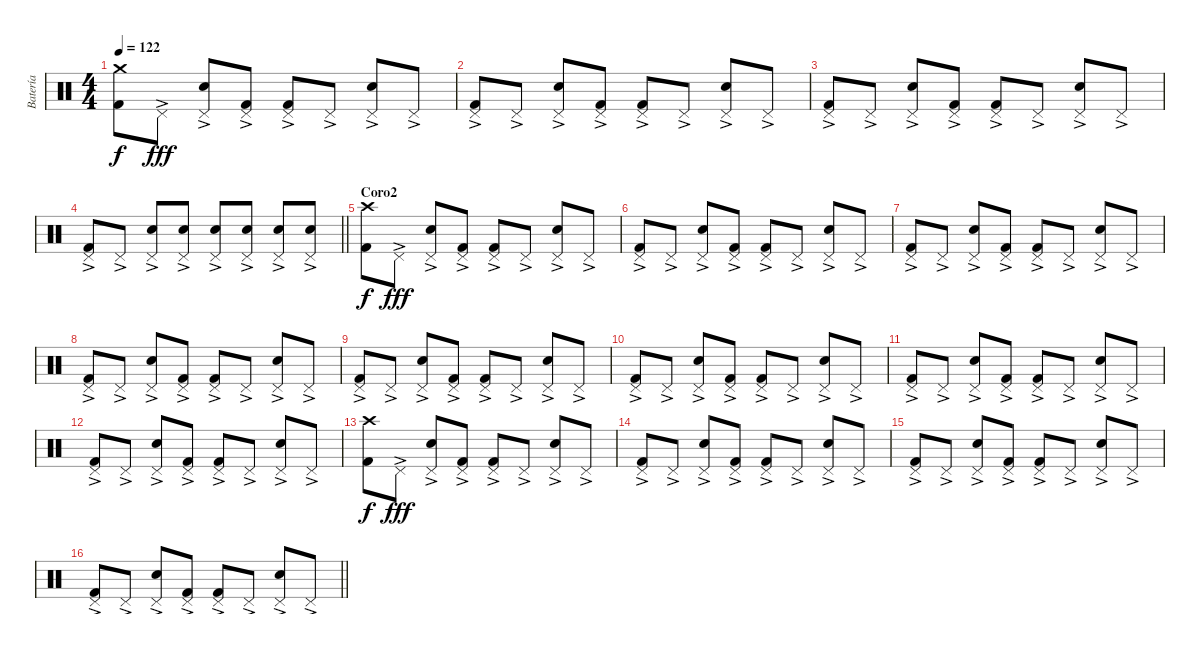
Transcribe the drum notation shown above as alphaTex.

\track ("Batería" "Batería") {instrument percussion}
\staff {score}
\articulation defaults
\ts (4 4)
\tempo 122
\clef neutral
\ks c
("Crash medium (hit)" "Kick (hit) 2").8{dy f} "Pedal Hi-Hat (hit)"{ac}.8{dy fff} ("Pedal Hi-Hat (hit)"{ac} "Electric Snare (hit)").8 ("Pedal Hi-Hat (hit)"{ac} "Kick (hit) 2").8 ("Pedal Hi-Hat (hit)"{ac} "Kick (hit) 2").8 "Pedal Hi-Hat (hit)"{ac}.8 ("Pedal Hi-Hat (hit)"{ac} "Electric Snare (hit)").8 "Pedal Hi-Hat (hit)"{ac}.8 |
("Pedal Hi-Hat (hit)"{ac} "Kick (hit) 2").8 "Pedal Hi-Hat (hit)"{ac}.8 ("Pedal Hi-Hat (hit)"{ac} "Electric Snare (hit)").8 ("Pedal Hi-Hat (hit)"{ac} "Kick (hit) 2").8 ("Pedal Hi-Hat (hit)"{ac} "Kick (hit) 2").8 "Pedal Hi-Hat (hit)"{ac}.8 ("Pedal Hi-Hat (hit)"{ac} "Electric Snare (hit)").8 "Pedal Hi-Hat (hit)"{ac}.8 |
("Pedal Hi-Hat (hit)"{ac} "Kick (hit) 2").8 "Pedal Hi-Hat (hit)"{ac}.8 ("Pedal Hi-Hat (hit)"{ac} "Electric Snare (hit)").8 ("Pedal Hi-Hat (hit)"{ac} "Kick (hit) 2").8 ("Pedal Hi-Hat (hit)"{ac} "Kick (hit) 2").8 "Pedal Hi-Hat (hit)"{ac}.8 ("Pedal Hi-Hat (hit)"{ac} "Electric Snare (hit)").8 "Pedal Hi-Hat (hit)"{ac}.8 |
\barLineRight lightlight
("Pedal Hi-Hat (hit)"{ac} "Kick (hit) 2").8 "Pedal Hi-Hat (hit)"{ac}.8 ("Pedal Hi-Hat (hit)"{ac} "Electric Snare (hit)").8 ("Pedal Hi-Hat (hit)"{ac} "Electric Snare (hit)").8 ("Pedal Hi-Hat (hit)"{ac} "Electric Snare (hit)").8 ("Pedal Hi-Hat (hit)"{ac} "Electric Snare (hit)").8 ("Pedal Hi-Hat (hit)"{ac} "Electric Snare (hit)").8 ("Pedal Hi-Hat (hit)"{ac} "Electric Snare (hit)").8 |
\section ("" "Coro2")
("Crash high (hit)" "Kick (hit) 2").8{dy f} "Pedal Hi-Hat (hit)"{ac}.8{dy fff} ("Pedal Hi-Hat (hit)"{ac} "Electric Snare (hit)").8 ("Pedal Hi-Hat (hit)"{ac} "Kick (hit) 2").8 ("Pedal Hi-Hat (hit)"{ac} "Kick (hit) 2").8 "Pedal Hi-Hat (hit)"{ac}.8 ("Pedal Hi-Hat (hit)"{ac} "Electric Snare (hit)").8 "Pedal Hi-Hat (hit)"{ac}.8 |
("Pedal Hi-Hat (hit)"{ac} "Kick (hit) 2").8 "Pedal Hi-Hat (hit)"{ac}.8 ("Pedal Hi-Hat (hit)"{ac} "Electric Snare (hit)").8 ("Pedal Hi-Hat (hit)"{ac} "Kick (hit) 2").8 ("Pedal Hi-Hat (hit)"{ac} "Kick (hit) 2").8 "Pedal Hi-Hat (hit)"{ac}.8 ("Pedal Hi-Hat (hit)"{ac} "Electric Snare (hit)").8 "Pedal Hi-Hat (hit)"{ac}.8 |
("Pedal Hi-Hat (hit)"{ac} "Kick (hit) 2").8 "Pedal Hi-Hat (hit)"{ac}.8 ("Pedal Hi-Hat (hit)"{ac} "Electric Snare (hit)").8 ("Pedal Hi-Hat (hit)"{ac} "Kick (hit) 2").8 ("Pedal Hi-Hat (hit)"{ac} "Kick (hit) 2").8 "Pedal Hi-Hat (hit)"{ac}.8 ("Pedal Hi-Hat (hit)"{ac} "Electric Snare (hit)").8 "Pedal Hi-Hat (hit)"{ac}.8 |
("Pedal Hi-Hat (hit)"{ac} "Kick (hit) 2").8 "Pedal Hi-Hat (hit)"{ac}.8 ("Pedal Hi-Hat (hit)"{ac} "Electric Snare (hit)").8 ("Pedal Hi-Hat (hit)"{ac} "Kick (hit) 2").8 ("Pedal Hi-Hat (hit)"{ac} "Kick (hit) 2").8 "Pedal Hi-Hat (hit)"{ac}.8 ("Pedal Hi-Hat (hit)"{ac} "Electric Snare (hit)").8 "Pedal Hi-Hat (hit)"{ac}.8 |
("Pedal Hi-Hat (hit)"{ac} "Kick (hit) 2").8 "Pedal Hi-Hat (hit)"{ac}.8 ("Pedal Hi-Hat (hit)"{ac} "Electric Snare (hit)").8 ("Pedal Hi-Hat (hit)"{ac} "Kick (hit) 2").8 ("Pedal Hi-Hat (hit)"{ac} "Kick (hit) 2").8 "Pedal Hi-Hat (hit)"{ac}.8 ("Pedal Hi-Hat (hit)"{ac} "Electric Snare (hit)").8 "Pedal Hi-Hat (hit)"{ac}.8 |
("Pedal Hi-Hat (hit)"{ac} "Kick (hit) 2").8 "Pedal Hi-Hat (hit)"{ac}.8 ("Pedal Hi-Hat (hit)"{ac} "Electric Snare (hit)").8 ("Pedal Hi-Hat (hit)"{ac} "Kick (hit) 2").8 ("Pedal Hi-Hat (hit)"{ac} "Kick (hit) 2").8 "Pedal Hi-Hat (hit)"{ac}.8 ("Pedal Hi-Hat (hit)"{ac} "Electric Snare (hit)").8 "Pedal Hi-Hat (hit)"{ac}.8 |
("Pedal Hi-Hat (hit)"{ac} "Kick (hit) 2").8 "Pedal Hi-Hat (hit)"{ac}.8 ("Pedal Hi-Hat (hit)"{ac} "Electric Snare (hit)").8 ("Pedal Hi-Hat (hit)"{ac} "Kick (hit) 2").8 ("Pedal Hi-Hat (hit)"{ac} "Kick (hit) 2").8 "Pedal Hi-Hat (hit)"{ac}.8 ("Pedal Hi-Hat (hit)"{ac} "Electric Snare (hit)").8 "Pedal Hi-Hat (hit)"{ac}.8 |
("Pedal Hi-Hat (hit)"{ac} "Kick (hit) 2").8 "Pedal Hi-Hat (hit)"{ac}.8 ("Pedal Hi-Hat (hit)"{ac} "Electric Snare (hit)").8 ("Pedal Hi-Hat (hit)"{ac} "Kick (hit) 2").8 ("Pedal Hi-Hat (hit)"{ac} "Kick (hit) 2").8 "Pedal Hi-Hat (hit)"{ac}.8 ("Pedal Hi-Hat (hit)"{ac} "Electric Snare (hit)").8 "Pedal Hi-Hat (hit)"{ac}.8 |
("Crash high (hit)" "Kick (hit) 2").8{dy f} "Pedal Hi-Hat (hit)"{ac}.8{dy fff} ("Pedal Hi-Hat (hit)"{ac} "Electric Snare (hit)").8 ("Pedal Hi-Hat (hit)"{ac} "Kick (hit) 2").8 ("Pedal Hi-Hat (hit)"{ac} "Kick (hit) 2").8 "Pedal Hi-Hat (hit)"{ac}.8 ("Pedal Hi-Hat (hit)"{ac} "Electric Snare (hit)").8 "Pedal Hi-Hat (hit)"{ac}.8 |
("Pedal Hi-Hat (hit)"{ac} "Kick (hit) 2").8 "Pedal Hi-Hat (hit)"{ac}.8 ("Pedal Hi-Hat (hit)"{ac} "Electric Snare (hit)").8 ("Pedal Hi-Hat (hit)"{ac} "Kick (hit) 2").8 ("Pedal Hi-Hat (hit)"{ac} "Kick (hit) 2").8 "Pedal Hi-Hat (hit)"{ac}.8 ("Pedal Hi-Hat (hit)"{ac} "Electric Snare (hit)").8 "Pedal Hi-Hat (hit)"{ac}.8 |
("Pedal Hi-Hat (hit)"{ac} "Kick (hit) 2").8 "Pedal Hi-Hat (hit)"{ac}.8 ("Pedal Hi-Hat (hit)"{ac} "Electric Snare (hit)").8 ("Pedal Hi-Hat (hit)"{ac} "Kick (hit) 2").8 ("Pedal Hi-Hat (hit)"{ac} "Kick (hit) 2").8 "Pedal Hi-Hat (hit)"{ac}.8 ("Pedal Hi-Hat (hit)"{ac} "Electric Snare (hit)").8 "Pedal Hi-Hat (hit)"{ac}.8 |
\barLineRight lightlight
("Pedal Hi-Hat (hit)"{ac} "Kick (hit) 2").8 "Pedal Hi-Hat (hit)"{ac}.8 ("Pedal Hi-Hat (hit)"{ac} "Electric Snare (hit)").8 ("Pedal Hi-Hat (hit)"{ac} "Kick (hit) 2").8 ("Pedal Hi-Hat (hit)"{ac} "Kick (hit) 2").8 "Pedal Hi-Hat (hit)"{ac}.8 ("Pedal Hi-Hat (hit)"{ac} "Electric Snare (hit)").8 "Pedal Hi-Hat (hit)"{ac}.8
